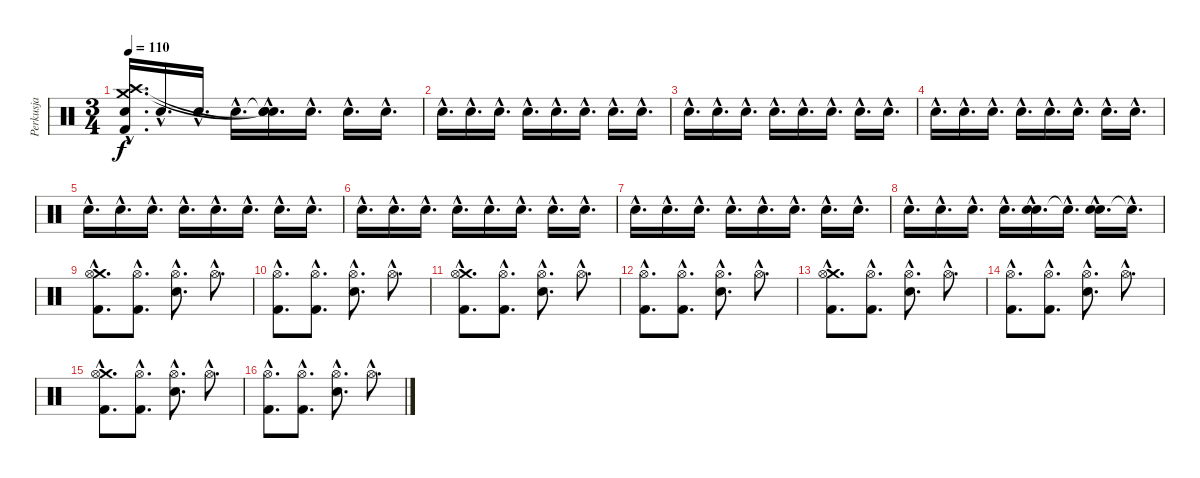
\track ("Perkusja" "Perkusja") {instrument percussion}
\staff {score}
\articulation defaults
\ts (3 4)
\tempo 110
\clef neutral
\ks c
("Kick (hit) 2"{hac} "Crash medium (hit)"{hac} "Crash high (hit)"{hac} "Snare (hit) 2"{hac}).16{d dy f} "Snare (hit) 2"{hac}.16{d} "Snare (hit) 2"{hac}.16{d volume 9} "Snare (hit) 2"{hac}.16{d} ("Snare (hit)"{hac t} "Snare (hit)"{hac t} "Snare (hit)"{hac t} "Snare (hit) 2"{hac}).16{d} "Snare (hit) 2"{hac}.16{d} "Snare (hit) 2"{hac}.16{d} "Snare (hit) 2"{hac}.16{d} |
"Snare (hit) 2"{hac}.16{d} "Snare (hit) 2"{hac}.16{d} "Snare (hit) 2"{hac}.16{d} "Snare (hit) 2"{hac}.16{d} "Snare (hit) 2"{hac}.16{d} "Snare (hit) 2"{hac}.16{d} "Snare (hit) 2"{hac}.16{d} "Snare (hit) 2"{hac}.16{d} |
"Snare (hit) 2"{hac}.16{d} "Snare (hit) 2"{hac}.16{d} "Snare (hit) 2"{hac}.16{d} "Snare (hit) 2"{hac}.16{d} "Snare (hit) 2"{hac}.16{d} "Snare (hit) 2"{hac}.16{d} "Snare (hit) 2"{hac}.16{d} "Snare (hit) 2"{hac}.16{d} |
"Snare (hit) 2"{hac}.16{d} "Snare (hit) 2"{hac}.16{d} "Snare (hit) 2"{hac}.16{d} "Snare (hit) 2"{hac}.16{d} "Snare (hit) 2"{hac}.16{d} "Snare (hit) 2"{hac}.16{d} "Snare (hit) 2"{hac}.16{d} "Snare (hit) 2"{hac}.16{d} |
"Snare (hit) 2"{hac}.16{d} "Snare (hit) 2"{hac}.16{d} "Snare (hit) 2"{hac}.16{d} "Snare (hit) 2"{hac}.16{d} "Snare (hit) 2"{hac}.16{d} "Snare (hit) 2"{hac}.16{d} "Snare (hit) 2"{hac}.16{d} "Snare (hit) 2"{hac}.16{d} |
"Snare (hit) 2"{hac}.16{d} "Snare (hit) 2"{hac}.16{d} "Snare (hit) 2"{hac}.16{d} "Snare (hit) 2"{hac}.16{d} "Snare (hit) 2"{hac}.16{d} "Snare (hit) 2"{hac}.16{d} "Snare (hit) 2"{hac}.16{d} "Snare (hit) 2"{hac}.16{d} |
"Snare (hit) 2"{hac}.16{d} "Snare (hit) 2"{hac}.16{d} "Snare (hit) 2"{hac}.16{d} "Snare (hit) 2"{hac}.16{d} "Snare (hit) 2"{hac}.16{d} "Snare (hit) 2"{hac}.16{d} "Snare (hit) 2"{hac}.16{d} "Snare (hit) 2"{hac}.16{d} |
"Snare (hit) 2"{hac}.16{d volume 13} "Snare (hit) 2"{hac}.16{d} "Snare (hit) 2"{hac}.16{d} "Snare (hit) 2"{hac}.16{d} ("Electric Snare (hit)"{hac} "Snare (hit) 2"{hac}).16{d} "Snare (hit)"{hac t}.16{d} ("Electric Snare (hit)"{hac} "Snare (hit) 2"{hac}).16{d} "Snare (hit)"{hac t}.16{d} |
("Kick (hit) 2"{hac} "Crash medium (hit)"{hac} "Hi-Hat (open)"{hac}).8{d} ("Kick (hit) 2"{hac} "Hi-Hat (open)"{hac}).8{d} ("Electric Snare (hit)"{hac} "Hi-Hat (open)"{hac}).8{d} "Hi-Hat (open)"{hac}.8{d} |
("Kick (hit) 2"{hac} "Hi-Hat (open)"{hac}).8{d} ("Kick (hit) 2"{hac} "Hi-Hat (open)"{hac}).8{d} ("Electric Snare (hit)"{hac} "Hi-Hat (open)"{hac}).8{d} "Hi-Hat (open)"{hac}.8{d} |
("Kick (hit) 2"{hac} "Crash medium (hit)"{hac} "Hi-Hat (open)"{hac}).8{d} ("Kick (hit) 2"{hac} "Hi-Hat (open)"{hac}).8{d} ("Electric Snare (hit)"{hac} "Hi-Hat (open)"{hac}).8{d} "Hi-Hat (open)"{hac}.8{d} |
("Kick (hit) 2"{hac} "Hi-Hat (open)"{hac}).8{d} ("Kick (hit) 2"{hac} "Hi-Hat (open)"{hac}).8{d} ("Electric Snare (hit)"{hac} "Hi-Hat (open)"{hac}).8{d} "Hi-Hat (open)"{hac}.8{d} |
("Kick (hit) 2"{hac} "Crash medium (hit)"{hac} "Hi-Hat (open)"{hac}).8{d} ("Kick (hit) 2"{hac} "Hi-Hat (open)"{hac}).8{d} ("Electric Snare (hit)"{hac} "Hi-Hat (open)"{hac}).8{d} "Hi-Hat (open)"{hac}.8{d} |
("Kick (hit) 2"{hac} "Hi-Hat (open)"{hac}).8{d} ("Kick (hit) 2"{hac} "Hi-Hat (open)"{hac}).8{d} ("Electric Snare (hit)"{hac} "Hi-Hat (open)"{hac}).8{d} "Hi-Hat (open)"{hac}.8{d} |
("Kick (hit) 2"{hac} "Crash medium (hit)"{hac} "Hi-Hat (open)"{hac}).8{d} ("Kick (hit) 2"{hac} "Hi-Hat (open)"{hac}).8{d} ("Electric Snare (hit)"{hac} "Hi-Hat (open)"{hac}).8{d} "Hi-Hat (open)"{hac}.8{d} |
("Kick (hit) 2"{hac} "Hi-Hat (open)"{hac}).8{d} ("Kick (hit) 2"{hac} "Hi-Hat (open)"{hac}).8{d} ("Electric Snare (hit)"{hac} "Hi-Hat (open)"{hac}).8{d} "Hi-Hat (open)"{hac}.8{d}
